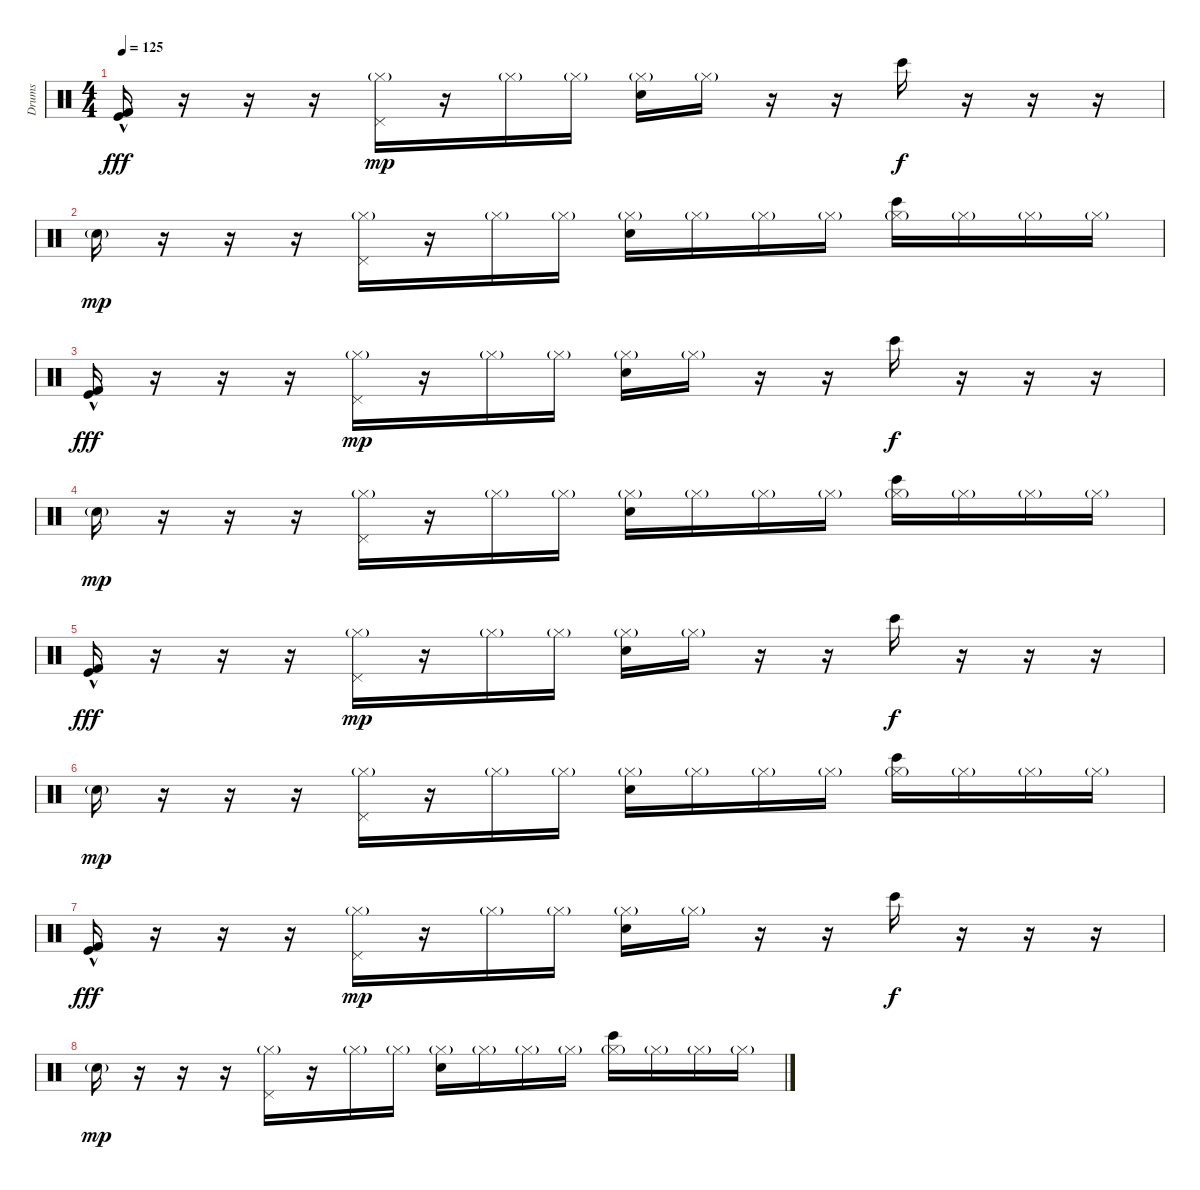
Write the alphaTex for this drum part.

\track ("Drums" "Drums") {instrument percussion}
\staff {score}
\articulation defaults
\ts (4 4)
\tempo 125
\clef neutral
\ks c
("Kick (hit)"{hac} "Kick (hit) 2"{hac}).16{dy fff volume 16} r.16{volume 10} r.16 r.16 ("Hi-Hat (closed)"{g} "Pedal Hi-Hat (hit)").16{dy mp} r.16 "Hi-Hat (closed)"{g}.16 "Hi-Hat (closed)"{g}.16 ("Hi-Hat (closed)"{g} "Hand Clap (hit)").16 "Hi-Hat (closed)"{g}.16 r.16 r.16 "Bongo High (hit)".16{dy f} r.16 r.16 r.16 |
"Electric Snare (hit)"{g}.16{dy mp} r.16 r.16 r.16 ("Hi-Hat (closed)"{g} "Pedal Hi-Hat (hit)").16 r.16 "Hi-Hat (closed)"{g}.16 "Hi-Hat (closed)"{g}.16 ("Hi-Hat (closed)"{g} "Hand Clap (hit)").16 "Hi-Hat (closed)"{g}.16 "Hi-Hat (closed)"{g}.16 "Hi-Hat (closed)"{g}.16 ("Hi-Hat (closed)"{g} "Bongo High (hit)").16 "Hi-Hat (closed)"{g}.16 "Hi-Hat (closed)"{g}.16 "Hi-Hat (closed)"{g}.16 |
("Kick (hit)"{hac} "Kick (hit) 2"{hac}).16{dy fff volume 16} r.16{volume 10} r.16 r.16 ("Hi-Hat (closed)"{g} "Pedal Hi-Hat (hit)").16{dy mp} r.16 "Hi-Hat (closed)"{g}.16 "Hi-Hat (closed)"{g}.16 ("Hi-Hat (closed)"{g} "Hand Clap (hit)").16 "Hi-Hat (closed)"{g}.16 r.16 r.16 "Bongo High (hit)".16{dy f} r.16 r.16 r.16 |
"Electric Snare (hit)"{g}.16{dy mp} r.16 r.16 r.16 ("Hi-Hat (closed)"{g} "Pedal Hi-Hat (hit)").16 r.16 "Hi-Hat (closed)"{g}.16 "Hi-Hat (closed)"{g}.16 ("Hi-Hat (closed)"{g} "Hand Clap (hit)").16 "Hi-Hat (closed)"{g}.16 "Hi-Hat (closed)"{g}.16 "Hi-Hat (closed)"{g}.16 ("Hi-Hat (closed)"{g} "Bongo High (hit)").16 "Hi-Hat (closed)"{g}.16 "Hi-Hat (closed)"{g}.16 "Hi-Hat (closed)"{g}.16 |
("Kick (hit)"{hac} "Kick (hit) 2"{hac}).16{dy fff volume 16} r.16{volume 10} r.16 r.16 ("Hi-Hat (closed)"{g} "Pedal Hi-Hat (hit)").16{dy mp} r.16 "Hi-Hat (closed)"{g}.16 "Hi-Hat (closed)"{g}.16 ("Hi-Hat (closed)"{g} "Hand Clap (hit)").16 "Hi-Hat (closed)"{g}.16 r.16 r.16 "Bongo High (hit)".16{dy f} r.16 r.16 r.16 |
"Electric Snare (hit)"{g}.16{dy mp} r.16 r.16 r.16 ("Hi-Hat (closed)"{g} "Pedal Hi-Hat (hit)").16 r.16 "Hi-Hat (closed)"{g}.16 "Hi-Hat (closed)"{g}.16 ("Hi-Hat (closed)"{g} "Hand Clap (hit)").16 "Hi-Hat (closed)"{g}.16 "Hi-Hat (closed)"{g}.16 "Hi-Hat (closed)"{g}.16 ("Hi-Hat (closed)"{g} "Bongo High (hit)").16 "Hi-Hat (closed)"{g}.16 "Hi-Hat (closed)"{g}.16 "Hi-Hat (closed)"{g}.16 |
("Kick (hit)"{hac} "Kick (hit) 2"{hac}).16{dy fff volume 16} r.16{volume 10} r.16 r.16 ("Hi-Hat (closed)"{g} "Pedal Hi-Hat (hit)").16{dy mp} r.16 "Hi-Hat (closed)"{g}.16 "Hi-Hat (closed)"{g}.16 ("Hi-Hat (closed)"{g} "Hand Clap (hit)").16 "Hi-Hat (closed)"{g}.16 r.16 r.16 "Bongo High (hit)".16{dy f} r.16 r.16 r.16 |
"Electric Snare (hit)"{g}.16{dy mp} r.16 r.16 r.16 ("Hi-Hat (closed)"{g} "Pedal Hi-Hat (hit)").16 r.16 "Hi-Hat (closed)"{g}.16 "Hi-Hat (closed)"{g}.16 ("Hi-Hat (closed)"{g} "Hand Clap (hit)").16 "Hi-Hat (closed)"{g}.16 "Hi-Hat (closed)"{g}.16 "Hi-Hat (closed)"{g}.16 ("Hi-Hat (closed)"{g} "Bongo High (hit)").16 "Hi-Hat (closed)"{g}.16 "Hi-Hat (closed)"{g}.16 "Hi-Hat (closed)"{g}.16
